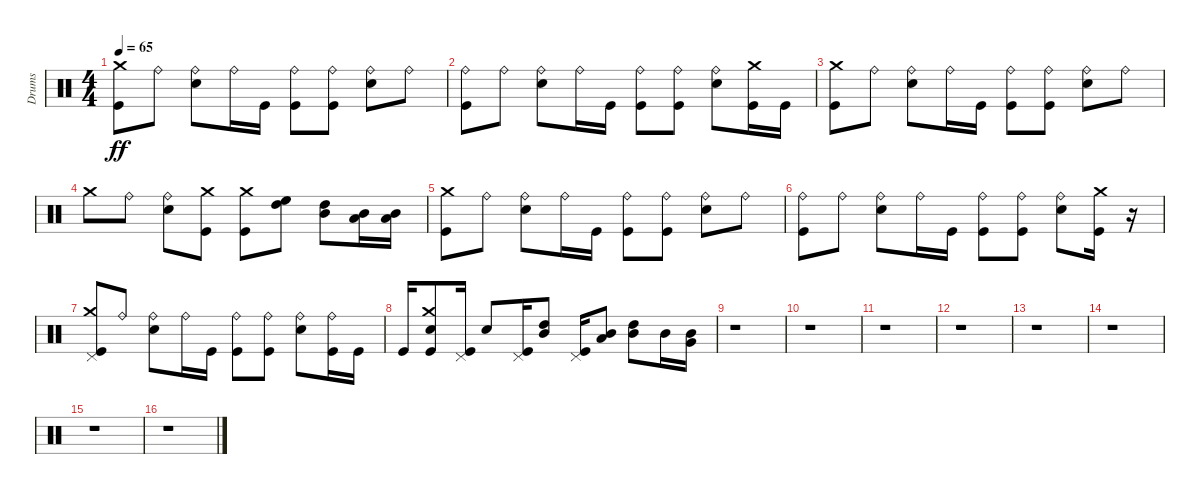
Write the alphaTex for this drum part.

\track ("Drums" "Drums") {instrument percussion}
\staff {score}
\articulation defaults
\ts (4 4)
\tempo 65
\clef neutral
\ks c
("Kick (hit)" "Crash medium (hit)").8{dy ff} "Ride (bell)".8 ("Electric Snare (hit)" "Ride (bell)").8 "Ride (bell)".16 "Kick (hit)".16 ("Kick (hit)" "Ride (bell)").8 ("Kick (hit)" "Ride (bell)").8 ("Electric Snare (hit)" "Ride (bell)").8 "Ride (bell)".8 |
("Kick (hit)" "Ride (bell)").8 "Ride (bell)".8 ("Electric Snare (hit)" "Ride (bell)").8 "Ride (bell)".16 "Kick (hit)".16 ("Kick (hit)" "Ride (bell)").8 ("Kick (hit)" "Ride (bell)").8 ("Electric Snare (hit)" "Ride (bell)").8 ("Kick (hit)" "Crash medium (hit)").16 "Kick (hit)".16 |
("Kick (hit)" "Crash medium (hit)").8 "Ride (bell)".8 ("Electric Snare (hit)" "Ride (bell)").8 "Ride (bell)".16 "Kick (hit)".16 ("Kick (hit)" "Ride (bell)").8 ("Kick (hit)" "Ride (bell)").8 ("Electric Snare (hit)" "Ride (bell)").8 "Ride (bell)".8 |
"Crash medium (hit)".8 "Ride (bell)".8 ("Electric Snare (hit)" "Ride (bell)").8 ("Kick (hit)" "Crash medium (hit)").8 ("Kick (hit)" "Crash medium (hit)").8 ("High Tom (hit)" "High Floor Tom (hit)").8 ("Mid Tom (hit)" "High Tom (hit)").8 ("Low Tom (hit)" "Mid Tom (hit)").16 ("Low Tom (hit)" "Mid Tom (hit)").16 |
("Kick (hit)" "Crash medium (hit)").8 "Ride (bell)".8 ("Electric Snare (hit)" "Ride (bell)").8 "Ride (bell)".16 "Kick (hit)".16 ("Kick (hit)" "Ride (bell)").8 ("Kick (hit)" "Ride (bell)").8 ("Electric Snare (hit)" "Ride (bell)").8 "Ride (bell)".8 |
("Kick (hit)" "Ride (bell)").8 "Ride (bell)".8 ("Electric Snare (hit)" "Ride (bell)").8 "Ride (bell)".16 "Kick (hit)".16 ("Kick (hit)" "Ride (bell)").8 ("Kick (hit)" "Ride (bell)").8 ("Electric Snare (hit)" "Ride (bell)").8 ("Kick (hit)" "Crash medium (hit)").16 r.16 |
("Kick (hit)" "Pedal Hi-Hat (hit)" "Crash medium (hit)").8 "Ride (bell)".8 ("Electric Snare (hit)" "Ride (bell)").8 "Ride (bell)".16 "Kick (hit)".16 ("Kick (hit)" "Ride (bell)").8 ("Kick (hit)" "Ride (bell)").8 ("Electric Snare (hit)" "Ride (bell)").8 ("Kick (hit)" "Ride (bell)").16 "Kick (hit)".16 |
"Kick (hit)".16 ("Kick (hit)" "Electric Snare (hit)" "Crash medium (hit)").8 ("Kick (hit)" "Pedal Hi-Hat (hit)").16 "Electric Snare (hit)".8 ("Kick (hit)" "Pedal Hi-Hat (hit)").16 ("Mid Tom (hit)" "High Tom (hit)").8 ("Kick (hit)" "Pedal Hi-Hat (hit)").16 ("Low Tom (hit)" "Mid Tom (hit)").8 ("Mid Tom (hit)" "High Tom (hit)").8 "Mid Tom (hit)".16 ("Very Low Tom (hit)" "Mid Tom (hit)").16 |
r.1 |
r.1 |
r.1 |
r.1 |
r.1 |
r.1 |
r.1 |
r.1
